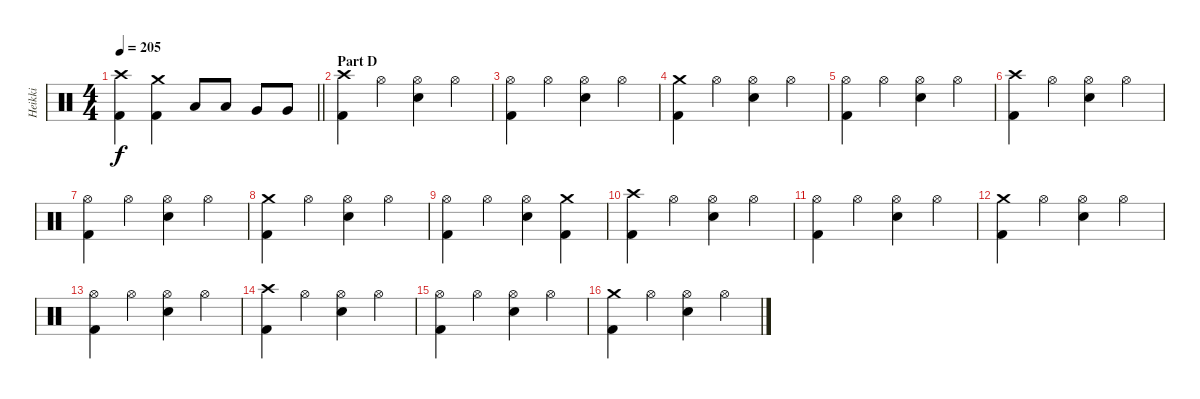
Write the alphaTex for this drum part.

\track ("Heikki" "Heikki") {instrument percussion}
\staff {score}
\articulation defaults
\ts (4 4)
\tempo 205
\clef neutral
\barLineRight lightlight
\ks c
("Crash high (hit)" "Kick (hit) 2").4{dy f} ("Crash medium (hit)" "Kick (hit) 2").4 "Low Tom (hit)".8 "Low Tom (hit)".8 "Very Low Tom (hit)".8 "Very Low Tom (hit)".8 |
\section ("" "Part D")
("Crash high (hit)" "Kick (hit) 2").4 "Hi-Hat (open)".4 ("Hi-Hat (open)" "Electric Snare (hit)").4 "Hi-Hat (open)".4 |
("Hi-Hat (open)" "Kick (hit) 2").4 "Hi-Hat (open)".4 ("Hi-Hat (open)" "Electric Snare (hit)").4 "Hi-Hat (open)".4 |
("Crash medium (hit)" "Kick (hit) 2").4 "Hi-Hat (open)".4 ("Hi-Hat (open)" "Electric Snare (hit)").4 "Hi-Hat (open)".4 |
("Hi-Hat (open)" "Kick (hit) 2").4 "Hi-Hat (open)".4 ("Hi-Hat (open)" "Electric Snare (hit)").4 "Hi-Hat (open)".4 |
("Crash high (hit)" "Kick (hit) 2").4 "Hi-Hat (open)".4 ("Hi-Hat (open)" "Electric Snare (hit)").4 "Hi-Hat (open)".4 |
("Hi-Hat (open)" "Kick (hit) 2").4 "Hi-Hat (open)".4 ("Hi-Hat (open)" "Electric Snare (hit)").4 "Hi-Hat (open)".4 |
("Crash medium (hit)" "Kick (hit) 2").4 "Hi-Hat (open)".4 ("Hi-Hat (open)" "Electric Snare (hit)").4 "Hi-Hat (open)".4 |
("Hi-Hat (open)" "Kick (hit) 2").4 "Hi-Hat (open)".4 ("Hi-Hat (open)" "Electric Snare (hit)").4 ("Crash medium (hit)" "Kick (hit) 2").4 |
("Crash high (hit)" "Kick (hit) 2").4 "Hi-Hat (open)".4 ("Hi-Hat (open)" "Electric Snare (hit)").4 "Hi-Hat (open)".4 |
("Hi-Hat (open)" "Kick (hit) 2").4 "Hi-Hat (open)".4 ("Hi-Hat (open)" "Electric Snare (hit)").4 "Hi-Hat (open)".4 |
("Crash medium (hit)" "Kick (hit) 2").4 "Hi-Hat (open)".4 ("Hi-Hat (open)" "Electric Snare (hit)").4 "Hi-Hat (open)".4 |
("Hi-Hat (open)" "Kick (hit) 2").4 "Hi-Hat (open)".4 ("Hi-Hat (open)" "Electric Snare (hit)").4 "Hi-Hat (open)".4 |
("Crash high (hit)" "Kick (hit) 2").4 "Hi-Hat (open)".4 ("Hi-Hat (open)" "Electric Snare (hit)").4 "Hi-Hat (open)".4 |
("Hi-Hat (open)" "Kick (hit) 2").4 "Hi-Hat (open)".4 ("Hi-Hat (open)" "Electric Snare (hit)").4 "Hi-Hat (open)".4 |
("Crash medium (hit)" "Kick (hit) 2").4 "Hi-Hat (open)".4 ("Hi-Hat (open)" "Electric Snare (hit)").4 "Hi-Hat (open)".4
